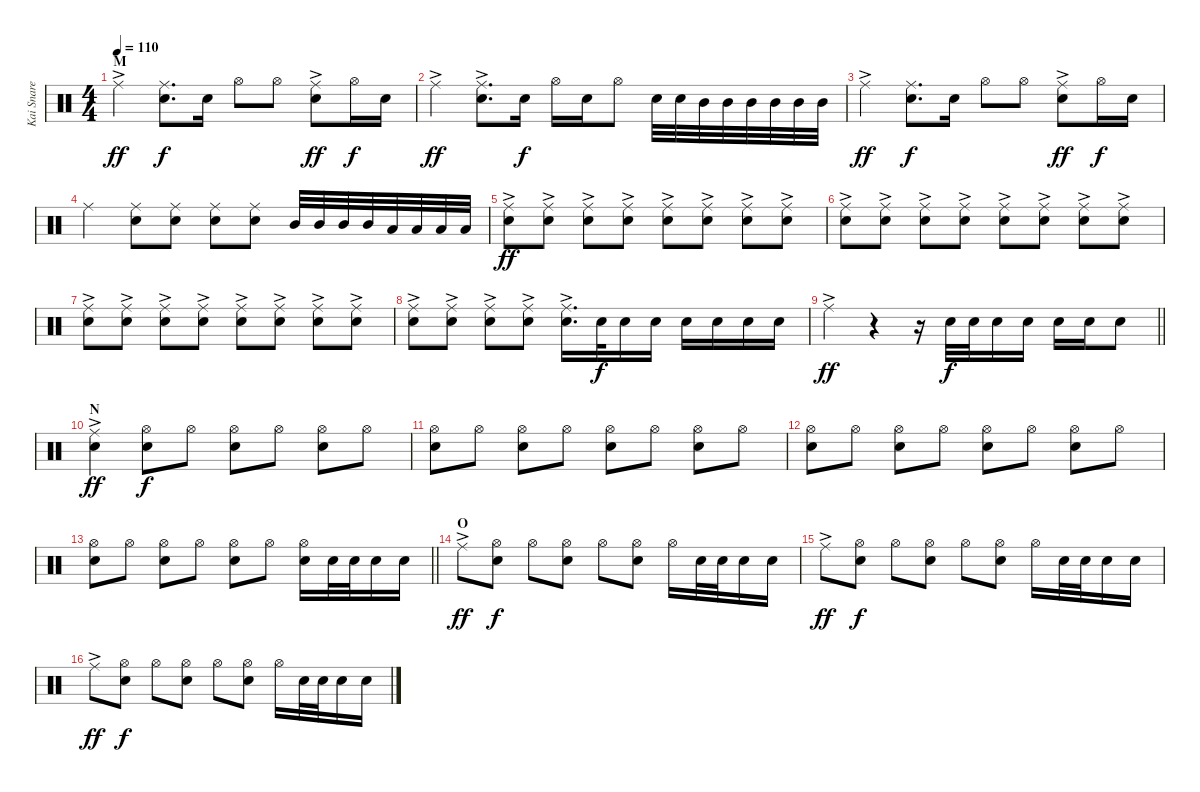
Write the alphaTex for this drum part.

\track ("Kai Snare" "Kai Snare") {instrument percussion}
\staff {score}
\articulation defaults
\ts (4 4)
\section ("" "M")
\tempo 110
\clef neutral
\ks c "Ride (middle)"{ac}.4{dy ff}
("Ride (middle)" "Snare (hit) 2").8{d dy f} "Snare (hit) 2".16 "Hi-Hat (open)".8 "Hi-Hat (open)".8 ("Ride (middle)"{ac} "Snare (hit) 2").8{dy ff} "Hi-Hat (open)".16{dy f} "Snare (hit) 2".16 |
"Ride (middle)"{ac}.4{dy ff} ("Ride (middle)"{ac} "Snare (hit) 2").8{d} "Snare (hit) 2".16{dy f} "Hi-Hat (open)".16 "Snare (hit) 2".16 "Hi-Hat (open)".8 "Snare (hit) 2".32 "Snare (hit) 2".32 "Mid Tom (hit)".32 "Mid Tom (hit)".32 "Mid Tom (hit)".32 "Mid Tom (hit)".32 "Mid Tom (hit)".32 "Mid Tom (hit)".32 |
"Ride (middle)"{ac}.4{dy ff} ("Ride (middle)" "Snare (hit) 2").8{d dy f} "Snare (hit) 2".16 "Hi-Hat (open)".8 "Hi-Hat (open)".8 ("Ride (middle)"{ac} "Snare (hit) 2").8{dy ff} "Hi-Hat (open)".16{dy f} "Snare (hit) 2".16 |
"Ride (middle)".4 ("Ride (middle)" "Snare (hit) 2").8 ("Ride (middle)" "Snare (hit) 2").8 ("Ride (middle)" "Snare (hit) 2").8 ("Ride (middle)" "Snare (hit) 2").8 "Mid Tom (hit)".32 "Mid Tom (hit)".32 "Mid Tom (hit)".32 "Mid Tom (hit)".32 "Low Tom (hit)".32 "Low Tom (hit)".32 "Low Tom (hit)".32 "Low Tom (hit)".32 |
("Ride (middle)"{ac} "Snare (hit) 2").8{dy ff} ("Ride (middle)"{ac} "Snare (hit) 2").8 ("Ride (middle)"{ac} "Snare (hit) 2").8 ("Ride (middle)"{ac} "Snare (hit) 2").8 ("Ride (middle)"{ac} "Snare (hit) 2").8 ("Ride (middle)"{ac} "Snare (hit) 2").8 ("Ride (middle)"{ac} "Snare (hit) 2").8 ("Ride (middle)"{ac} "Snare (hit) 2").8 |
("Ride (middle)"{ac} "Snare (hit) 2").8 ("Ride (middle)"{ac} "Snare (hit) 2").8 ("Ride (middle)"{ac} "Snare (hit) 2").8 ("Ride (middle)"{ac} "Snare (hit) 2").8 ("Ride (middle)"{ac} "Snare (hit) 2").8 ("Ride (middle)"{ac} "Snare (hit) 2").8 ("Ride (middle)"{ac} "Snare (hit) 2").8 ("Ride (middle)"{ac} "Snare (hit) 2").8 |
("Ride (middle)"{ac} "Snare (hit) 2").8 ("Ride (middle)"{ac} "Snare (hit) 2").8 ("Ride (middle)"{ac} "Snare (hit) 2").8 ("Ride (middle)"{ac} "Snare (hit) 2").8 ("Ride (middle)"{ac} "Snare (hit) 2").8 ("Ride (middle)"{ac} "Snare (hit) 2").8 ("Ride (middle)"{ac} "Snare (hit) 2").8 ("Ride (middle)"{ac} "Snare (hit) 2").8 |
("Ride (middle)"{ac} "Snare (hit) 2").8 ("Ride (middle)"{ac} "Snare (hit) 2").8 ("Ride (middle)"{ac} "Snare (hit) 2").8 ("Ride (middle)"{ac} "Snare (hit) 2").8 ("Ride (middle)"{ac} "Snare (hit) 2").16{d} "Snare (hit) 2".32{dy f} "Snare (hit) 2".16 "Snare (hit) 2".16 "Snare (hit) 2".16 "Snare (hit) 2".16 "Snare (hit) 2".16 "Snare (hit) 2".16 |
\barLineRight lightlight "Ride (middle)"{ac}.4{dy ff}
r.4 r.16 "Snare (hit) 2".32{dy f} "Snare (hit) 2".32 "Snare (hit) 2".16 "Snare (hit) 2".16 "Snare (hit) 2".16 "Snare (hit) 2".16 "Snare (hit) 2".8 |
\section ("" "N")
("Ride (middle)"{ac} "Snare (hit) 2").4{dy ff} ("Hi-Hat (open)" "Snare (hit) 2").8{dy f} "Hi-Hat (open)".8 ("Hi-Hat (open)" "Snare (hit) 2").8 "Hi-Hat (open)".8 ("Hi-Hat (open)" "Snare (hit) 2").8 "Hi-Hat (open)".8 |
("Hi-Hat (open)" "Snare (hit) 2").8 "Hi-Hat (open)".8 ("Hi-Hat (open)" "Snare (hit) 2").8 "Hi-Hat (open)".8 ("Hi-Hat (open)" "Snare (hit) 2").8 "Hi-Hat (open)".8 ("Hi-Hat (open)" "Snare (hit) 2").8 "Hi-Hat (open)".8 |
("Hi-Hat (open)" "Snare (hit) 2").8 "Hi-Hat (open)".8 ("Hi-Hat (open)" "Snare (hit) 2").8 "Hi-Hat (open)".8 ("Hi-Hat (open)" "Snare (hit) 2").8 "Hi-Hat (open)".8 ("Hi-Hat (open)" "Snare (hit) 2").8 "Hi-Hat (open)".8 |
\barLineRight lightlight
("Hi-Hat (open)" "Snare (hit) 2").8 "Hi-Hat (open)".8 ("Hi-Hat (open)" "Snare (hit) 2").8 "Hi-Hat (open)".8 ("Hi-Hat (open)" "Snare (hit) 2").8 "Hi-Hat (open)".8 ("Hi-Hat (open)" "Snare (hit) 2").16 "Snare (hit) 2".32 "Snare (hit) 2".32 "Snare (hit) 2".16 "Snare (hit) 2".16 |
\section ("" "O")
"Ride (middle)"{ac}.8{dy ff} ("Hi-Hat (open)" "Snare (hit) 2").8{dy f} "Hi-Hat (open)".8 ("Hi-Hat (open)" "Snare (hit) 2").8 "Hi-Hat (open)".8 ("Hi-Hat (open)" "Snare (hit) 2").8 "Hi-Hat (open)".16 "Snare (hit) 2".32 "Snare (hit) 2".32 "Snare (hit) 2".16 "Snare (hit) 2".16 |
"Ride (middle)"{ac}.8{dy ff} ("Hi-Hat (open)" "Snare (hit) 2").8{dy f} "Hi-Hat (open)".8 ("Hi-Hat (open)" "Snare (hit) 2").8 "Hi-Hat (open)".8 ("Hi-Hat (open)" "Snare (hit) 2").8 "Hi-Hat (open)".16 "Snare (hit) 2".32 "Snare (hit) 2".32 "Snare (hit) 2".16 "Snare (hit) 2".16 |
"Ride (middle)"{ac}.8{dy ff} ("Hi-Hat (open)" "Snare (hit) 2").8{dy f} "Hi-Hat (open)".8 ("Hi-Hat (open)" "Snare (hit) 2").8 "Hi-Hat (open)".8 ("Hi-Hat (open)" "Snare (hit) 2").8 "Hi-Hat (open)".16 "Snare (hit) 2".32 "Snare (hit) 2".32 "Snare (hit) 2".16 "Snare (hit) 2".16
